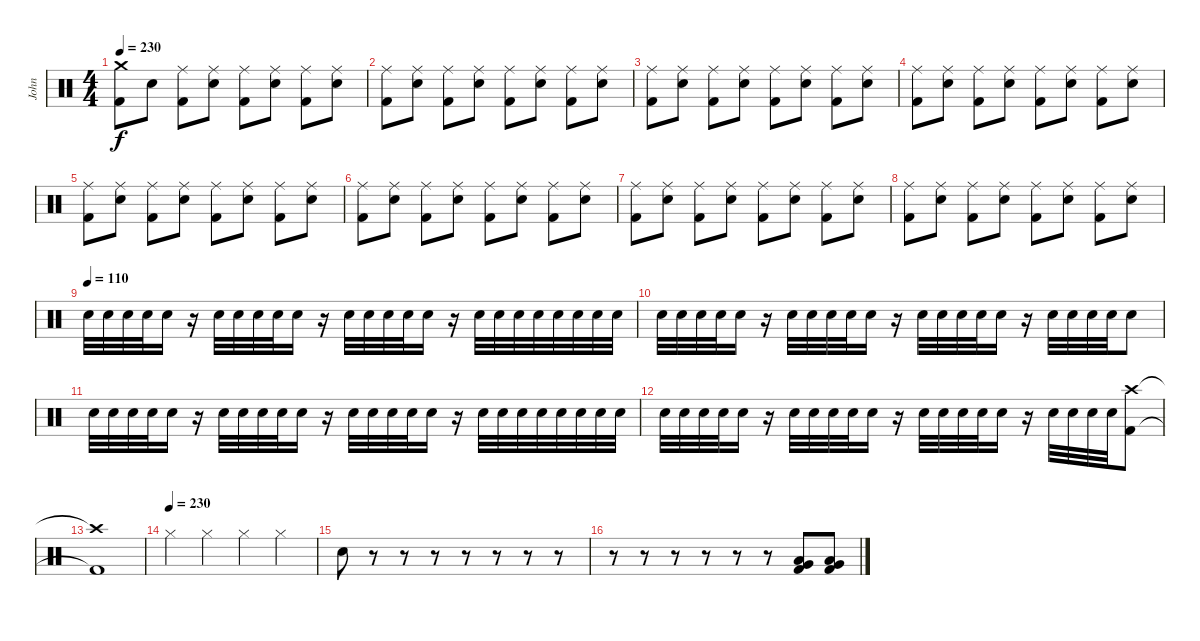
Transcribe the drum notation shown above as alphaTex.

\track ("John" "John") {instrument percussion}
\staff {score}
\articulation defaults
\ts (4 4)
\tempo 230
\clef neutral
\ks c
("Crash medium (hit)" "Kick (hit) 2").8{dy f} "Electric Snare (hit)".8 ("Ride (middle)" "Kick (hit) 2").8 ("Ride (middle)" "Electric Snare (hit)").8 ("Ride (middle)" "Kick (hit) 2").8 ("Ride (middle)" "Electric Snare (hit)").8 ("Ride (middle)" "Kick (hit) 2").8 ("Ride (middle)" "Electric Snare (hit)").8 |
("Ride (middle)" "Kick (hit) 2").8 ("Ride (middle)" "Electric Snare (hit)").8 ("Ride (middle)" "Kick (hit) 2").8 ("Ride (middle)" "Electric Snare (hit)").8 ("Ride (middle)" "Kick (hit) 2").8 ("Ride (middle)" "Electric Snare (hit)").8 ("Ride (middle)" "Kick (hit) 2").8 ("Ride (middle)" "Electric Snare (hit)").8 |
("Ride (middle)" "Kick (hit) 2").8 ("Ride (middle)" "Electric Snare (hit)").8 ("Ride (middle)" "Kick (hit) 2").8 ("Ride (middle)" "Electric Snare (hit)").8 ("Ride (middle)" "Kick (hit) 2").8 ("Ride (middle)" "Electric Snare (hit)").8 ("Ride (middle)" "Kick (hit) 2").8 ("Ride (middle)" "Electric Snare (hit)").8 |
("Ride (middle)" "Kick (hit) 2").8 ("Ride (middle)" "Electric Snare (hit)").8 ("Ride (middle)" "Kick (hit) 2").8 ("Ride (middle)" "Electric Snare (hit)").8 ("Ride (middle)" "Kick (hit) 2").8 ("Ride (middle)" "Electric Snare (hit)").8 ("Ride (middle)" "Kick (hit) 2").8 ("Ride (middle)" "Electric Snare (hit)").8 |
("Ride (middle)" "Kick (hit) 2").8 ("Ride (middle)" "Electric Snare (hit)").8 ("Ride (middle)" "Kick (hit) 2").8 ("Ride (middle)" "Electric Snare (hit)").8 ("Ride (middle)" "Kick (hit) 2").8 ("Ride (middle)" "Electric Snare (hit)").8 ("Ride (middle)" "Kick (hit) 2").8 ("Ride (middle)" "Electric Snare (hit)").8 |
("Ride (middle)" "Kick (hit) 2").8 ("Ride (middle)" "Electric Snare (hit)").8 ("Ride (middle)" "Kick (hit) 2").8 ("Ride (middle)" "Electric Snare (hit)").8 ("Ride (middle)" "Kick (hit) 2").8 ("Ride (middle)" "Electric Snare (hit)").8 ("Ride (middle)" "Kick (hit) 2").8 ("Ride (middle)" "Electric Snare (hit)").8 |
("Ride (middle)" "Kick (hit) 2").8 ("Ride (middle)" "Electric Snare (hit)").8 ("Ride (middle)" "Kick (hit) 2").8 ("Ride (middle)" "Electric Snare (hit)").8 ("Ride (middle)" "Kick (hit) 2").8 ("Ride (middle)" "Electric Snare (hit)").8 ("Ride (middle)" "Kick (hit) 2").8 ("Ride (middle)" "Electric Snare (hit)").8 |
("Ride (middle)" "Kick (hit) 2").8 ("Ride (middle)" "Electric Snare (hit)").8 ("Ride (middle)" "Kick (hit) 2").8 ("Ride (middle)" "Electric Snare (hit)").8 ("Ride (middle)" "Kick (hit) 2").8 ("Ride (middle)" "Electric Snare (hit)").8 ("Ride (middle)" "Kick (hit) 2").8 ("Ride (middle)" "Electric Snare (hit)").8 |
\tempo (110)
"Electric Snare (hit)".32 "Electric Snare (hit)".32 "Electric Snare (hit)".32 "Electric Snare (hit)".32 "Electric Snare (hit)".16 r.16 "Electric Snare (hit)".32 "Electric Snare (hit)".32 "Electric Snare (hit)".32 "Electric Snare (hit)".32 "Electric Snare (hit)".16 r.16 "Electric Snare (hit)".32 "Electric Snare (hit)".32 "Electric Snare (hit)".32 "Electric Snare (hit)".32 "Electric Snare (hit)".16 r.16 "Electric Snare (hit)".32 "Electric Snare (hit)".32 "Electric Snare (hit)".32 "Electric Snare (hit)".32 "Electric Snare (hit)".32 "Electric Snare (hit)".32 "Electric Snare (hit)".32 "Electric Snare (hit)".32 |
"Electric Snare (hit)".32 "Electric Snare (hit)".32 "Electric Snare (hit)".32 "Electric Snare (hit)".32 "Electric Snare (hit)".16 r.16 "Electric Snare (hit)".32 "Electric Snare (hit)".32 "Electric Snare (hit)".32 "Electric Snare (hit)".32 "Electric Snare (hit)".16 r.16 "Electric Snare (hit)".32 "Electric Snare (hit)".32 "Electric Snare (hit)".32 "Electric Snare (hit)".32 "Electric Snare (hit)".16 r.16 "Electric Snare (hit)".32 "Electric Snare (hit)".32 "Electric Snare (hit)".32 "Electric Snare (hit)".32 "Electric Snare (hit)".8 |
"Electric Snare (hit)".32 "Electric Snare (hit)".32 "Electric Snare (hit)".32 "Electric Snare (hit)".32 "Electric Snare (hit)".16 r.16 "Electric Snare (hit)".32 "Electric Snare (hit)".32 "Electric Snare (hit)".32 "Electric Snare (hit)".32 "Electric Snare (hit)".16 r.16 "Electric Snare (hit)".32 "Electric Snare (hit)".32 "Electric Snare (hit)".32 "Electric Snare (hit)".32 "Electric Snare (hit)".16 r.16 "Electric Snare (hit)".32 "Electric Snare (hit)".32 "Electric Snare (hit)".32 "Electric Snare (hit)".32 "Electric Snare (hit)".32 "Electric Snare (hit)".32 "Electric Snare (hit)".32 "Electric Snare (hit)".32 |
"Electric Snare (hit)".32 "Electric Snare (hit)".32 "Electric Snare (hit)".32 "Electric Snare (hit)".32 "Electric Snare (hit)".16 r.16 "Electric Snare (hit)".32 "Electric Snare (hit)".32 "Electric Snare (hit)".32 "Electric Snare (hit)".32 "Electric Snare (hit)".16 r.16 "Electric Snare (hit)".32 "Electric Snare (hit)".32 "Electric Snare (hit)".32 "Electric Snare (hit)".32 "Electric Snare (hit)".16 r.16 "Electric Snare (hit)".32 "Electric Snare (hit)".32 "Electric Snare (hit)".32 "Electric Snare (hit)".32 ("Crash high (hit)" "Kick (hit) 2").8 |
("Crash high (hit)"{t} "Kick (hit) 2"{t}).1 |
\tempo (230)
"Hi-Hat (closed)".4 "Hi-Hat (closed)".4 "Hi-Hat (closed)".4 "Hi-Hat (closed)".4 |
"Electric Snare (hit)".8 r.8 r.8 r.8 r.8 r.8 r.8 r.8 |
r.8 r.8 r.8 r.8 r.8 r.8 ("Low Tom (hit)" "Very Low Tom (hit)" "Kick (hit) 2").8 ("Low Tom (hit)" "Very Low Tom (hit)" "Kick (hit) 2").8
